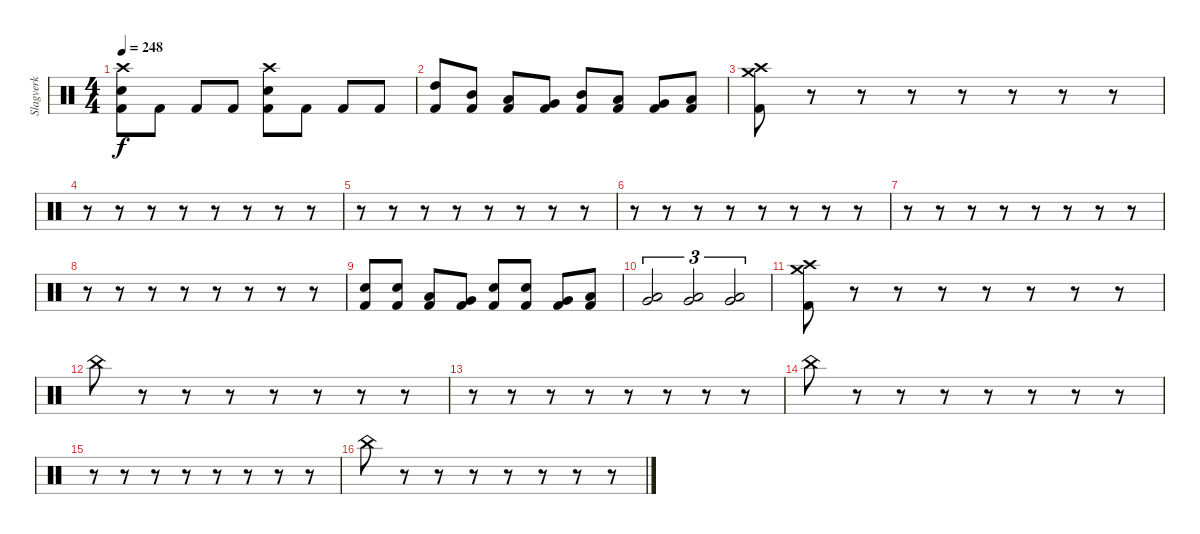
\track ("Slagverk" "Slagverk") {instrument percussion}
\staff {score}
\articulation defaults
\ts (4 4)
\tempo 248
\clef neutral
\ks c
("Crash high (hit)" "Snare (hit) 2" "Kick (hit) 2").8{dy f} "Kick (hit) 2".8 "Kick (hit) 2".8 "Kick (hit) 2".8 ("Crash high (hit)" "Snare (hit) 2" "Kick (hit) 2").8 "Kick (hit) 2".8 "Kick (hit) 2".8 "Kick (hit) 2".8 |
("High Tom (hit)" "Kick (hit) 2").8 ("Mid Tom (hit)" "Kick (hit) 2").8 ("Low Tom (hit)" "Kick (hit) 2").8 ("Very Low Tom (hit)" "Kick (hit) 2").8 ("Mid Tom (hit)" "Kick (hit) 2").8 ("Low Tom (hit)" "Kick (hit) 2").8 ("Very Low Tom (hit)" "Kick (hit) 2").8 ("Low Floor Tom (hit)" "Kick (hit) 2").8 |
("Crash medium (hit)" "Crash high (hit)" "Kick (hit) 2").8 r.8 r.8 r.8 r.8 r.8 r.8 r.8 |
r.8 r.8 r.8 r.8 r.8 r.8 r.8 r.8 |
r.8 r.8 r.8 r.8 r.8 r.8 r.8 r.8 |
r.8 r.8 r.8 r.8 r.8 r.8 r.8 r.8 |
r.8 r.8 r.8 r.8 r.8 r.8 r.8 r.8 |
r.8 r.8 r.8 r.8 r.8 r.8 r.8 r.8 |
("Snare (hit) 2" "Kick (hit) 2").8 ("Snare (hit) 2" "Kick (hit) 2").8 ("Low Tom (hit)" "Kick (hit) 2").8 ("Very Low Tom (hit)" "Kick (hit) 2").8 ("Snare (hit) 2" "Kick (hit) 2").8 ("Snare (hit) 2" "Kick (hit) 2").8 ("Very Low Tom (hit)" "Kick (hit) 2").8 ("Low Floor Tom (hit)" "Kick (hit) 2").8 |
("Very Low Tom (hit)" "Low Floor Tom (hit)").2{tu (3 2)} ("Very Low Tom (hit)" "Low Floor Tom (hit)").2{tu (3 2)} ("Very Low Tom (hit)" "Low Floor Tom (hit)").2{tu (3 2)} |
("Crash medium (hit)" "Crash high (hit)" "Kick (hit) 2").8 r.8 r.8 r.8 r.8 r.8 r.8 r.8 |
"China (hit)".8 r.8 r.8 r.8 r.8 r.8 r.8 r.8 |
r.8 r.8 r.8 r.8 r.8 r.8 r.8 r.8 |
"China (hit)".8 r.8 r.8 r.8 r.8 r.8 r.8 r.8 |
r.8 r.8 r.8 r.8 r.8 r.8 r.8 r.8 |
"China (hit)".8 r.8 r.8 r.8 r.8 r.8 r.8 r.8
